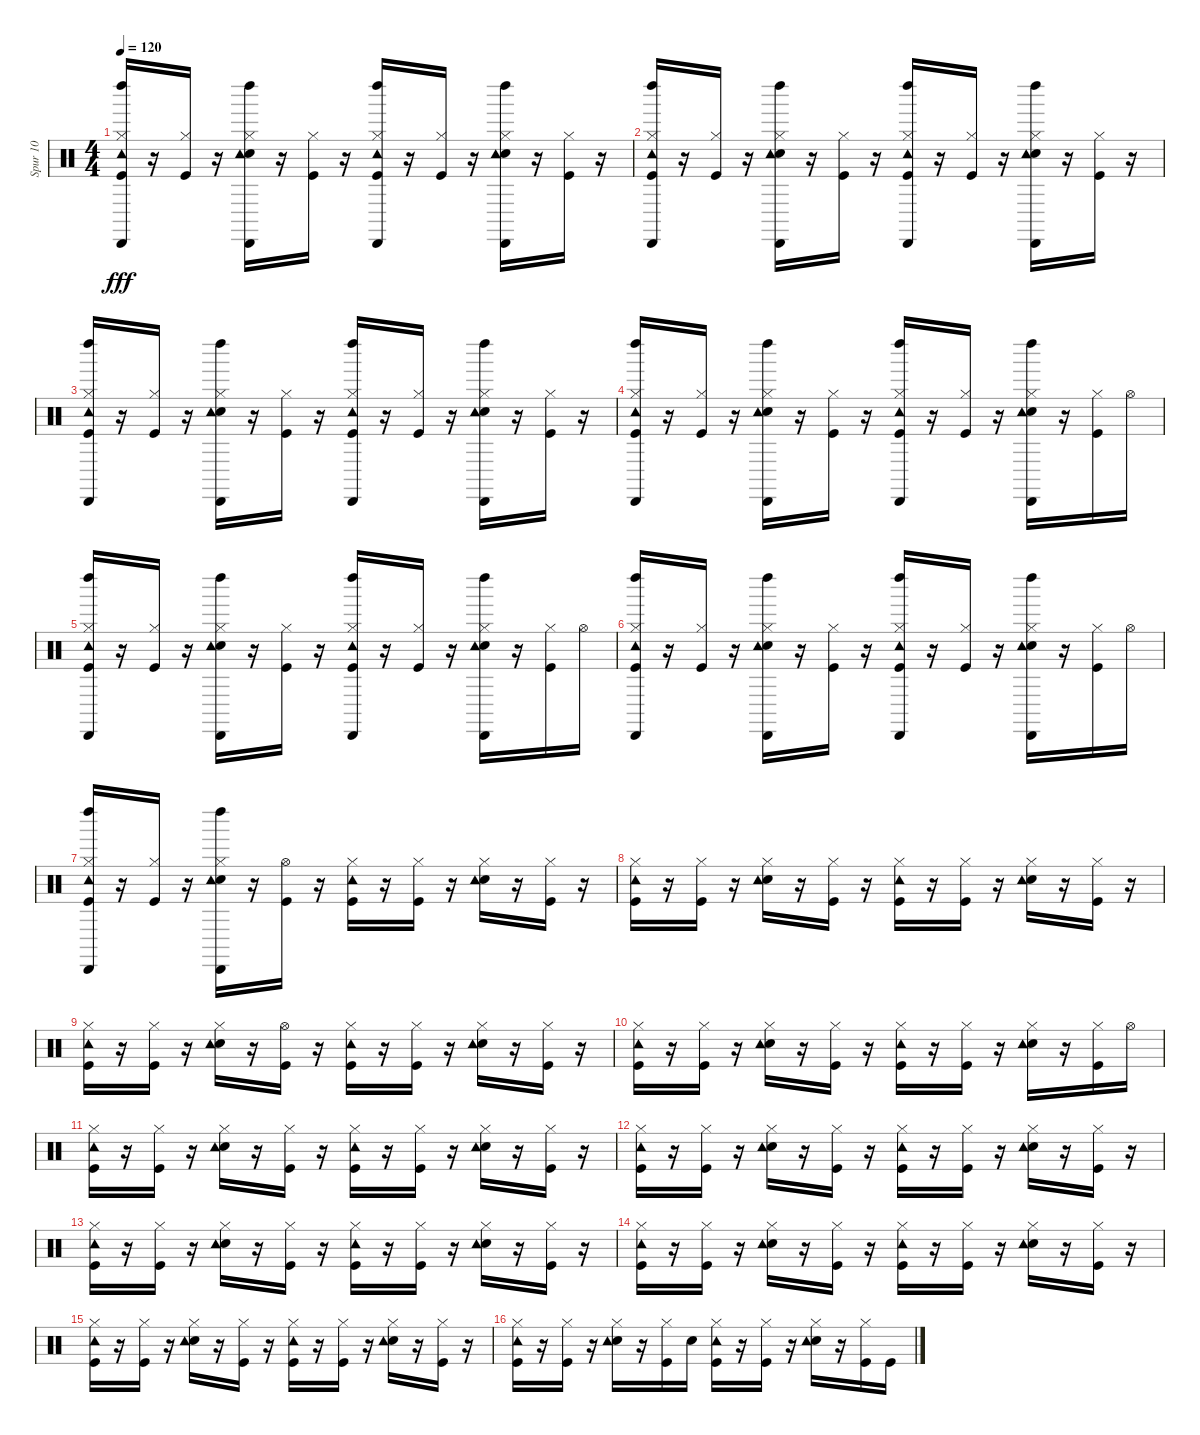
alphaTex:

\track ("Spur 10" "Spur 10") {instrument percussion}
\staff {score}
\articulation defaults
\ts (4 4)
\tempo 120
\clef neutral
\ks c
("Kick (hit)" "Hi-Hat (closed)" "Tambourine (hit)" "Left Maraca (hit)" "Cabasa (hit)").16{dy fff} r.16 ("Kick (hit)" "Hi-Hat (closed)").16 r.16 ("Snare (hit) 2" "Hi-Hat (closed)" "Tambourine (hit)" "Left Maraca (hit)" "Cabasa (hit)").16 r.16 ("Kick (hit)" "Hi-Hat (closed)").16 r.16 ("Kick (hit)" "Hi-Hat (closed)" "Tambourine (hit)" "Left Maraca (hit)" "Cabasa (hit)").16 r.16 ("Kick (hit)" "Hi-Hat (closed)").16 r.16 ("Snare (hit) 2" "Hi-Hat (closed)" "Tambourine (hit)" "Left Maraca (hit)" "Cabasa (hit)").16 r.16 ("Kick (hit)" "Hi-Hat (closed)").16 r.16 |
("Kick (hit)" "Hi-Hat (closed)" "Tambourine (hit)" "Left Maraca (hit)" "Cabasa (hit)").16 r.16 ("Kick (hit)" "Hi-Hat (closed)").16 r.16 ("Snare (hit) 2" "Hi-Hat (closed)" "Tambourine (hit)" "Left Maraca (hit)" "Cabasa (hit)").16 r.16 ("Kick (hit)" "Hi-Hat (closed)").16 r.16 ("Kick (hit)" "Hi-Hat (closed)" "Tambourine (hit)" "Left Maraca (hit)" "Cabasa (hit)").16 r.16 ("Kick (hit)" "Hi-Hat (closed)").16 r.16 ("Snare (hit) 2" "Hi-Hat (closed)" "Tambourine (hit)" "Left Maraca (hit)" "Cabasa (hit)").16 r.16 ("Kick (hit)" "Hi-Hat (closed)").16 r.16 |
("Kick (hit)" "Hi-Hat (closed)" "Tambourine (hit)" "Left Maraca (hit)" "Cabasa (hit)").16 r.16 ("Kick (hit)" "Hi-Hat (closed)").16 r.16 ("Snare (hit) 2" "Hi-Hat (closed)" "Tambourine (hit)" "Left Maraca (hit)" "Cabasa (hit)").16 r.16 ("Kick (hit)" "Hi-Hat (closed)").16 r.16 ("Kick (hit)" "Hi-Hat (closed)" "Tambourine (hit)" "Left Maraca (hit)" "Cabasa (hit)").16 r.16 ("Kick (hit)" "Hi-Hat (closed)").16 r.16 ("Snare (hit) 2" "Hi-Hat (closed)" "Tambourine (hit)" "Left Maraca (hit)" "Cabasa (hit)").16 r.16 ("Kick (hit)" "Hi-Hat (closed)").16 r.16 |
("Kick (hit)" "Hi-Hat (closed)" "Tambourine (hit)" "Left Maraca (hit)" "Cabasa (hit)").16 r.16 ("Kick (hit)" "Hi-Hat (closed)").16 r.16 ("Snare (hit) 2" "Hi-Hat (closed)" "Tambourine (hit)" "Left Maraca (hit)" "Cabasa (hit)").16 r.16 ("Kick (hit)" "Hi-Hat (closed)").16 r.16 ("Kick (hit)" "Hi-Hat (closed)" "Tambourine (hit)" "Left Maraca (hit)" "Cabasa (hit)").16 r.16 ("Kick (hit)" "Hi-Hat (closed)").16 r.16 ("Snare (hit) 2" "Hi-Hat (closed)" "Tambourine (hit)" "Left Maraca (hit)" "Cabasa (hit)").16 r.16 ("Kick (hit)" "Hi-Hat (closed)").16 "Hi-Hat (open)".16 |
("Kick (hit)" "Hi-Hat (closed)" "Tambourine (hit)" "Left Maraca (hit)" "Cabasa (hit)").16 r.16 ("Kick (hit)" "Hi-Hat (closed)").16 r.16 ("Snare (hit) 2" "Hi-Hat (closed)" "Tambourine (hit)" "Left Maraca (hit)" "Cabasa (hit)").16 r.16 ("Kick (hit)" "Hi-Hat (closed)").16 r.16 ("Kick (hit)" "Hi-Hat (closed)" "Tambourine (hit)" "Left Maraca (hit)" "Cabasa (hit)").16 r.16 ("Kick (hit)" "Hi-Hat (closed)").16 r.16 ("Snare (hit) 2" "Hi-Hat (closed)" "Tambourine (hit)" "Left Maraca (hit)" "Cabasa (hit)").16 r.16 ("Kick (hit)" "Hi-Hat (closed)").16 "Hi-Hat (open)".16 |
("Kick (hit)" "Hi-Hat (closed)" "Tambourine (hit)" "Left Maraca (hit)" "Cabasa (hit)").16 r.16 ("Kick (hit)" "Hi-Hat (closed)").16 r.16 ("Snare (hit) 2" "Hi-Hat (closed)" "Tambourine (hit)" "Left Maraca (hit)" "Cabasa (hit)").16 r.16 ("Kick (hit)" "Hi-Hat (closed)").16 r.16 ("Kick (hit)" "Hi-Hat (closed)" "Tambourine (hit)" "Left Maraca (hit)" "Cabasa (hit)").16 r.16 ("Kick (hit)" "Hi-Hat (closed)").16 r.16 ("Snare (hit) 2" "Hi-Hat (closed)" "Tambourine (hit)" "Left Maraca (hit)" "Cabasa (hit)").16 r.16 ("Kick (hit)" "Hi-Hat (closed)").16 "Hi-Hat (open)".16 |
("Kick (hit)" "Hi-Hat (closed)" "Tambourine (hit)" "Left Maraca (hit)" "Cabasa (hit)").16 r.16 ("Kick (hit)" "Hi-Hat (closed)").16 r.16 ("Snare (hit) 2" "Hi-Hat (closed)" "Tambourine (hit)" "Left Maraca (hit)" "Cabasa (hit)").16 r.16 ("Kick (hit)" "Hi-Hat (open)").16 r.16 ("Kick (hit)" "Hi-Hat (closed)" "Tambourine (hit)").16 r.16 ("Kick (hit)" "Hi-Hat (closed)").16 r.16 ("Snare (hit) 2" "Hi-Hat (closed)" "Tambourine (hit)").16 r.16 ("Kick (hit)" "Hi-Hat (closed)").16 r.16 |
("Kick (hit)" "Hi-Hat (closed)" "Tambourine (hit)").16 r.16 ("Kick (hit)" "Hi-Hat (closed)").16 r.16 ("Snare (hit) 2" "Hi-Hat (closed)" "Tambourine (hit)").16 r.16 ("Kick (hit)" "Hi-Hat (closed)").16 r.16 ("Kick (hit)" "Hi-Hat (closed)" "Tambourine (hit)").16 r.16 ("Kick (hit)" "Hi-Hat (closed)").16 r.16 ("Snare (hit) 2" "Hi-Hat (closed)" "Tambourine (hit)").16 r.16 ("Kick (hit)" "Hi-Hat (closed)").16 r.16 |
("Kick (hit)" "Hi-Hat (closed)" "Tambourine (hit)").16 r.16 ("Kick (hit)" "Hi-Hat (closed)").16 r.16 ("Snare (hit) 2" "Hi-Hat (closed)" "Tambourine (hit)").16 r.16 ("Kick (hit)" "Hi-Hat (open)").16 r.16 ("Kick (hit)" "Hi-Hat (closed)" "Tambourine (hit)").16 r.16 ("Kick (hit)" "Hi-Hat (closed)").16 r.16 ("Snare (hit) 2" "Hi-Hat (closed)" "Tambourine (hit)").16 r.16 ("Kick (hit)" "Hi-Hat (closed)").16 r.16 |
("Kick (hit)" "Hi-Hat (closed)" "Tambourine (hit)").16 r.16 ("Kick (hit)" "Hi-Hat (closed)").16 r.16 ("Snare (hit) 2" "Hi-Hat (closed)" "Tambourine (hit)").16 r.16 ("Kick (hit)" "Hi-Hat (closed)").16 r.16 ("Kick (hit)" "Hi-Hat (closed)" "Tambourine (hit)").16 r.16 ("Kick (hit)" "Hi-Hat (closed)").16 r.16 ("Snare (hit) 2" "Hi-Hat (closed)" "Tambourine (hit)").16 r.16 ("Kick (hit)" "Hi-Hat (closed)").16 "Hi-Hat (open)".16 |
("Kick (hit)" "Hi-Hat (closed)" "Tambourine (hit)").16 r.16 ("Kick (hit)" "Hi-Hat (closed)").16 r.16 ("Snare (hit) 2" "Hi-Hat (closed)" "Tambourine (hit)").16 r.16 ("Kick (hit)" "Hi-Hat (closed)").16 r.16 ("Kick (hit)" "Hi-Hat (closed)" "Tambourine (hit)").16 r.16 ("Kick (hit)" "Hi-Hat (closed)").16 r.16 ("Snare (hit) 2" "Hi-Hat (closed)" "Tambourine (hit)").16 r.16 ("Kick (hit)" "Hi-Hat (closed)").16 r.16 |
("Kick (hit)" "Hi-Hat (closed)" "Tambourine (hit)").16 r.16 ("Kick (hit)" "Hi-Hat (closed)").16 r.16 ("Snare (hit) 2" "Hi-Hat (closed)" "Tambourine (hit)").16 r.16 ("Kick (hit)" "Hi-Hat (closed)").16 r.16 ("Kick (hit)" "Hi-Hat (closed)" "Tambourine (hit)").16 r.16 ("Kick (hit)" "Hi-Hat (closed)").16 r.16 ("Snare (hit) 2" "Hi-Hat (closed)" "Tambourine (hit)").16 r.16 ("Kick (hit)" "Hi-Hat (closed)").16 r.16 |
("Kick (hit)" "Hi-Hat (closed)" "Tambourine (hit)").16 r.16 ("Kick (hit)" "Hi-Hat (closed)").16 r.16 ("Snare (hit) 2" "Hi-Hat (closed)" "Tambourine (hit)").16 r.16 ("Kick (hit)" "Hi-Hat (closed)").16 r.16 ("Kick (hit)" "Hi-Hat (closed)" "Tambourine (hit)").16 r.16 ("Kick (hit)" "Hi-Hat (closed)").16 r.16 ("Snare (hit) 2" "Hi-Hat (closed)" "Tambourine (hit)").16 r.16 ("Kick (hit)" "Hi-Hat (closed)").16 r.16 |
("Kick (hit)" "Hi-Hat (closed)" "Tambourine (hit)").16 r.16 ("Kick (hit)" "Hi-Hat (closed)").16 r.16 ("Snare (hit) 2" "Hi-Hat (closed)" "Tambourine (hit)").16 r.16 ("Kick (hit)" "Hi-Hat (closed)").16 r.16 ("Kick (hit)" "Hi-Hat (closed)" "Tambourine (hit)").16 r.16 ("Kick (hit)" "Hi-Hat (closed)").16 r.16 ("Snare (hit) 2" "Hi-Hat (closed)" "Tambourine (hit)").16 r.16 ("Kick (hit)" "Hi-Hat (closed)").16 r.16 |
("Kick (hit)" "Hi-Hat (closed)" "Tambourine (hit)").16 r.16 ("Kick (hit)" "Hi-Hat (closed)").16 r.16 ("Snare (hit) 2" "Hi-Hat (closed)" "Tambourine (hit)").16 r.16 ("Kick (hit)" "Hi-Hat (closed)").16 r.16 ("Kick (hit)" "Hi-Hat (closed)" "Tambourine (hit)").16 r.16 ("Kick (hit)" "Hi-Hat (closed)").16 r.16 ("Snare (hit) 2" "Hi-Hat (closed)" "Tambourine (hit)").16 r.16 ("Kick (hit)" "Hi-Hat (closed)").16 r.16 |
("Kick (hit)" "Hi-Hat (closed)" "Tambourine (hit)").16 r.16 ("Kick (hit)" "Hi-Hat (closed)").16 r.16 ("Snare (hit) 2" "Hi-Hat (closed)" "Tambourine (hit)").16 r.16 ("Kick (hit)" "Hi-Hat (closed)").16 "Snare (hit) 2".16 ("Kick (hit)" "Hi-Hat (closed)" "Tambourine (hit)").16 r.16 ("Kick (hit)" "Hi-Hat (closed)").16 r.16 ("Snare (hit) 2" "Hi-Hat (closed)" "Tambourine (hit)").16 r.16 ("Kick (hit)" "Hi-Hat (closed)").16 "Kick (hit)".16
